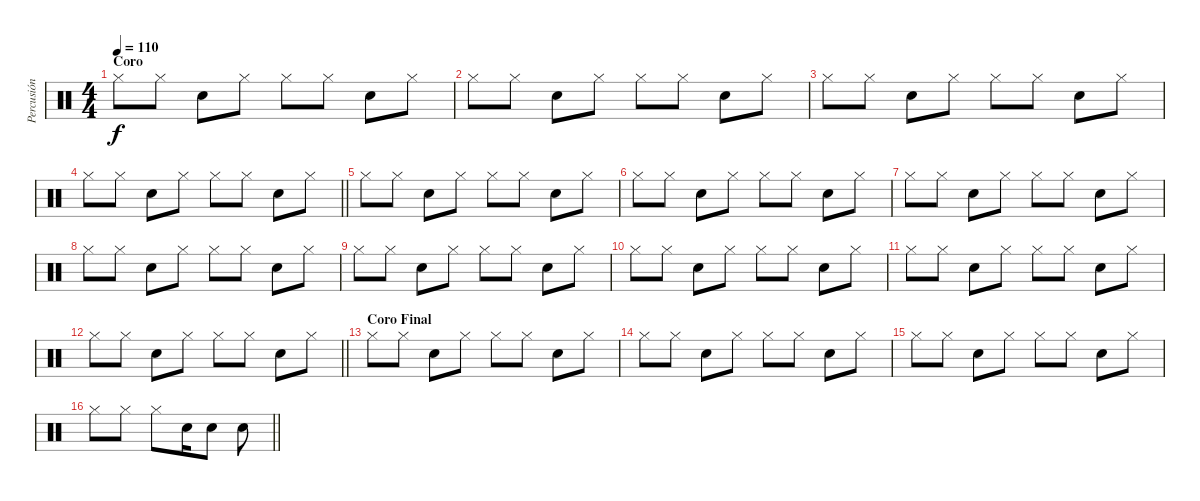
\track ("Percusión" "Percusión") {instrument percussion}
\staff {score}
\articulation defaults
\ts (4 4)
\section ("" "Coro")
\tempo 110
\clef neutral
\ks c "Hi-Hat (closed)".8{dy f} "Hi-Hat (closed)".8 "Snare (hit) 2".8 "Hi-Hat (closed)".8 "Hi-Hat (closed)".8 "Hi-Hat (closed)".8 "Snare (hit) 2".8 "Hi-Hat (closed)".8
|
"Hi-Hat (closed)".8 "Hi-Hat (closed)".8 "Snare (hit) 2".8 "Hi-Hat (closed)".8 "Hi-Hat (closed)".8 "Hi-Hat (closed)".8 "Snare (hit) 2".8 "Hi-Hat (closed)".8 |
"Hi-Hat (closed)".8 "Hi-Hat (closed)".8 "Snare (hit) 2".8 "Hi-Hat (closed)".8 "Hi-Hat (closed)".8 "Hi-Hat (closed)".8 "Snare (hit) 2".8 "Hi-Hat (closed)".8 |
\barLineRight lightlight "Hi-Hat (closed)".8 "Hi-Hat (closed)".8 "Snare (hit) 2".8 "Hi-Hat (closed)".8 "Hi-Hat (closed)".8 "Hi-Hat (closed)".8 "Snare (hit) 2".8 "Hi-Hat (closed)".8
|
"Hi-Hat (closed)".8 "Hi-Hat (closed)".8 "Snare (hit) 2".8 "Hi-Hat (closed)".8 "Hi-Hat (closed)".8 "Hi-Hat (closed)".8 "Snare (hit) 2".8 "Hi-Hat (closed)".8 |
"Hi-Hat (closed)".8 "Hi-Hat (closed)".8 "Snare (hit) 2".8 "Hi-Hat (closed)".8 "Hi-Hat (closed)".8 "Hi-Hat (closed)".8 "Snare (hit) 2".8 "Hi-Hat (closed)".8 |
"Hi-Hat (closed)".8 "Hi-Hat (closed)".8 "Snare (hit) 2".8 "Hi-Hat (closed)".8 "Hi-Hat (closed)".8 "Hi-Hat (closed)".8 "Snare (hit) 2".8 "Hi-Hat (closed)".8 |
"Hi-Hat (closed)".8 "Hi-Hat (closed)".8 "Snare (hit) 2".8 "Hi-Hat (closed)".8 "Hi-Hat (closed)".8 "Hi-Hat (closed)".8 "Snare (hit) 2".8 "Hi-Hat (closed)".8 |
"Hi-Hat (closed)".8 "Hi-Hat (closed)".8 "Snare (hit) 2".8 "Hi-Hat (closed)".8 "Hi-Hat (closed)".8 "Hi-Hat (closed)".8 "Snare (hit) 2".8 "Hi-Hat (closed)".8 |
"Hi-Hat (closed)".8 "Hi-Hat (closed)".8 "Snare (hit) 2".8 "Hi-Hat (closed)".8 "Hi-Hat (closed)".8 "Hi-Hat (closed)".8 "Snare (hit) 2".8 "Hi-Hat (closed)".8 |
"Hi-Hat (closed)".8 "Hi-Hat (closed)".8 "Snare (hit) 2".8 "Hi-Hat (closed)".8 "Hi-Hat (closed)".8 "Hi-Hat (closed)".8 "Snare (hit) 2".8 "Hi-Hat (closed)".8 |
\barLineRight lightlight "Hi-Hat (closed)".8 "Hi-Hat (closed)".8 "Snare (hit) 2".8 "Hi-Hat (closed)".8 "Hi-Hat (closed)".8 "Hi-Hat (closed)".8 "Snare (hit) 2".8 "Hi-Hat (closed)".8
|
\section ("" "Coro Final")
"Hi-Hat (closed)".8 "Hi-Hat (closed)".8 "Snare (hit) 2".8 "Hi-Hat (closed)".8 "Hi-Hat (closed)".8 "Hi-Hat (closed)".8 "Snare (hit) 2".8 "Hi-Hat (closed)".8 |
"Hi-Hat (closed)".8 "Hi-Hat (closed)".8 "Snare (hit) 2".8 "Hi-Hat (closed)".8 "Hi-Hat (closed)".8 "Hi-Hat (closed)".8 "Snare (hit) 2".8 "Hi-Hat (closed)".8 |
"Hi-Hat (closed)".8 "Hi-Hat (closed)".8 "Snare (hit) 2".8 "Hi-Hat (closed)".8 "Hi-Hat (closed)".8 "Hi-Hat (closed)".8 "Snare (hit) 2".8 "Hi-Hat (closed)".8 |
\barLineRight lightlight "Hi-Hat (closed)".8 "Hi-Hat (closed)".8 "Hi-Hat (closed)".8 "Electric Snare (hit)".16 "Electric Snare (hit)".8 "Electric Snare (hit)".8
